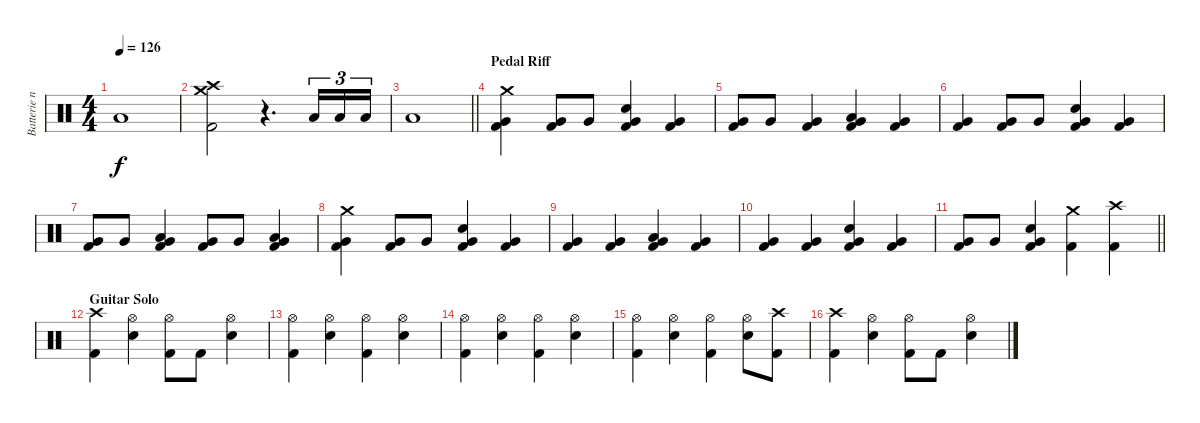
\track ("Batterie n°3" "Batterie n") {instrument percussion}
\staff {score}
\articulation defaults
\ts (4 4)
\tempo 126
\clef neutral
\ks c "Low Floor Tom (hit)".1{dy f}
|
("Crash high (hit)" "Crash medium (hit)" "Kick (hit) 2").2 r.4{d} "Low Floor Tom (hit)".16{tu (3 2)} "Low Floor Tom (hit)".16{tu (3 2)} "Low Floor Tom (hit)".16{tu (3 2)} |
\barLineRight lightlight "Low Floor Tom (hit)".1
|
\section ("" "Pedal Riff")
("Crash medium (hit)" "Very Low Tom (hit)" "Kick (hit) 2").4 ("Very Low Tom (hit)" "Kick (hit) 2").8 "Very Low Tom (hit)".8 ("Very Low Tom (hit)" "Snare (hit) 2" "Kick (hit) 2").4 ("Very Low Tom (hit)" "Kick (hit) 2").4 |
("Very Low Tom (hit)" "Kick (hit) 2").8 "Very Low Tom (hit)".8 ("Very Low Tom (hit)" "Kick (hit) 2").4 ("Low Tom (hit)" "Very Low Tom (hit)" "Kick (hit) 2").4 ("Very Low Tom (hit)" "Kick (hit) 2").4 |
("Very Low Tom (hit)" "Kick (hit) 2").4 ("Very Low Tom (hit)" "Kick (hit) 2").8 "Very Low Tom (hit)".8 ("Very Low Tom (hit)" "Snare (hit) 2" "Kick (hit) 2").4 ("Very Low Tom (hit)" "Kick (hit) 2").4 |
("Very Low Tom (hit)" "Kick (hit) 2").8 "Very Low Tom (hit)".8 ("Low Tom (hit)" "Very Low Tom (hit)" "Kick (hit) 2").4 ("Very Low Tom (hit)" "Kick (hit) 2").8 "Very Low Tom (hit)".8 ("Low Tom (hit)" "Very Low Tom (hit)" "Kick (hit) 2").4 |
("Crash medium (hit)" "Very Low Tom (hit)" "Kick (hit) 2").4 ("Very Low Tom (hit)" "Kick (hit) 2").8 "Very Low Tom (hit)".8 ("Very Low Tom (hit)" "Snare (hit) 2" "Kick (hit) 2").4 ("Very Low Tom (hit)" "Kick (hit) 2").4 |
("Very Low Tom (hit)" "Kick (hit) 2").4 ("Very Low Tom (hit)" "Kick (hit) 2").4 ("Low Tom (hit)" "Very Low Tom (hit)" "Kick (hit) 2").4 ("Very Low Tom (hit)" "Kick (hit) 2").4 |
("Very Low Tom (hit)" "Kick (hit) 2").4 ("Very Low Tom (hit)" "Kick (hit) 2").4 ("Very Low Tom (hit)" "Snare (hit) 2" "Kick (hit) 2").4 ("Very Low Tom (hit)" "Kick (hit) 2").4 |
\barLineRight lightlight
("Very Low Tom (hit)" "Kick (hit) 2").8 "Very Low Tom (hit)".8 ("Very Low Tom (hit)" "Snare (hit) 2" "Kick (hit) 2").4 ("Crash medium (hit)" "Kick (hit) 2").4 ("Crash high (hit)" "Kick (hit) 2").4 |
\section ("" "Guitar Solo")
("Crash high (hit)" "Kick (hit) 2").4 ("Hi-Hat (open)" "Snare (hit) 2").4 ("Hi-Hat (open)" "Kick (hit) 2").8 "Kick (hit) 2".8 ("Hi-Hat (open)" "Snare (hit) 2").4 |
("Hi-Hat (open)" "Kick (hit) 2").4 ("Hi-Hat (open)" "Snare (hit) 2").4 ("Hi-Hat (open)" "Kick (hit) 2").4 ("Hi-Hat (open)" "Snare (hit) 2").4 |
("Hi-Hat (open)" "Kick (hit) 2").4 ("Hi-Hat (open)" "Snare (hit) 2").4 ("Hi-Hat (open)" "Kick (hit) 2").4 ("Hi-Hat (open)" "Snare (hit) 2").4 |
("Hi-Hat (open)" "Kick (hit) 2").4 ("Hi-Hat (open)" "Snare (hit) 2").4 ("Hi-Hat (open)" "Kick (hit) 2").4 ("Hi-Hat (open)" "Snare (hit) 2").8 ("Crash high (hit)" "Kick (hit) 2").8 |
("Crash high (hit)" "Kick (hit) 2").4 ("Hi-Hat (open)" "Snare (hit) 2").4 ("Hi-Hat (open)" "Kick (hit) 2").8 "Kick (hit) 2".8 ("Hi-Hat (open)" "Snare (hit) 2").4
